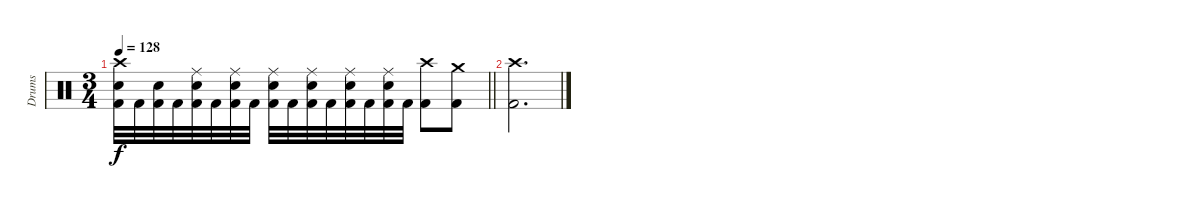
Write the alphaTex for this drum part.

\track ("Drums" "Drums") {instrument percussion}
\staff {score}
\articulation defaults
\ts (3 4)
\tempo 128
\clef neutral
\barLineRight lightlight
\ks c
("Crash high (hit)" "Snare (hit) 2" "Kick (hit) 2").32{dy f} "Kick (hit) 2".32 ("Snare (hit) 2" "Kick (hit) 2").32 "Kick (hit) 2".32 ("Ride (middle)" "Snare (hit) 2" "Kick (hit) 2").32 "Kick (hit) 2".32 ("Ride (middle)" "Snare (hit) 2" "Kick (hit) 2").32 "Kick (hit) 2".32 ("Ride (middle)" "Snare (hit) 2" "Kick (hit) 2").32 "Kick (hit) 2".32 ("Ride (middle)" "Snare (hit) 2" "Kick (hit) 2").32 "Kick (hit) 2".32 ("Ride (middle)" "Snare (hit) 2" "Kick (hit) 2").32 "Kick (hit) 2".32 ("Ride (middle)" "Snare (hit) 2" "Kick (hit) 2").32 "Kick (hit) 2".32 ("Crash high (hit)" "Kick (hit) 2").8 ("Crash medium (hit)" "Kick (hit) 2").8 |
("Crash high (hit)" "Kick (hit) 2").2{d}
